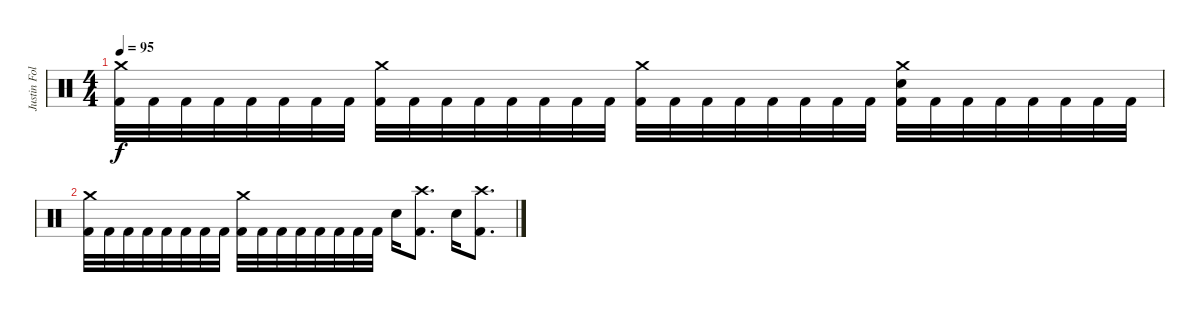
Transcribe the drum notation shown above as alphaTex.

\track ("Justin Foley" "Justin Fol") {instrument percussion}
\staff {score}
\articulation defaults
\ts (4 4)
\tempo 95
\clef neutral
\ks c
("Crash medium (hit)" "Kick (hit) 2").32{dy f} "Kick (hit) 2".32 "Kick (hit) 2".32 "Kick (hit) 2".32 "Kick (hit) 2".32 "Kick (hit) 2".32 "Kick (hit) 2".32 "Kick (hit) 2".32 ("Crash medium (hit)" "Kick (hit) 2").32 "Kick (hit) 2".32 "Kick (hit) 2".32 "Kick (hit) 2".32 "Kick (hit) 2".32 "Kick (hit) 2".32 "Kick (hit) 2".32 "Kick (hit) 2".32 ("Crash medium (hit)" "Kick (hit) 2").32 "Kick (hit) 2".32 "Kick (hit) 2".32 "Kick (hit) 2".32 "Kick (hit) 2".32 "Kick (hit) 2".32 "Kick (hit) 2".32 "Kick (hit) 2".32 ("Crash medium (hit)" "Snare (hit) 2" "Kick (hit) 2").32 "Kick (hit) 2".32 "Kick (hit) 2".32 "Kick (hit) 2".32 "Kick (hit) 2".32 "Kick (hit) 2".32 "Kick (hit) 2".32 "Kick (hit) 2".32 |
("Crash medium (hit)" "Kick (hit) 2").32 "Kick (hit) 2".32 "Kick (hit) 2".32 "Kick (hit) 2".32 "Kick (hit) 2".32 "Kick (hit) 2".32 "Kick (hit) 2".32 "Kick (hit) 2".32 ("Crash medium (hit)" "Kick (hit) 2").32 "Kick (hit) 2".32 "Kick (hit) 2".32 "Kick (hit) 2".32 "Kick (hit) 2".32 "Kick (hit) 2".32 "Kick (hit) 2".32 "Kick (hit) 2".32 "Snare (hit) 2".16 ("Crash high (hit)" "Kick (hit) 2").8{d} "Snare (hit) 2".16 ("Crash high (hit)" "Kick (hit) 2").8{d}
